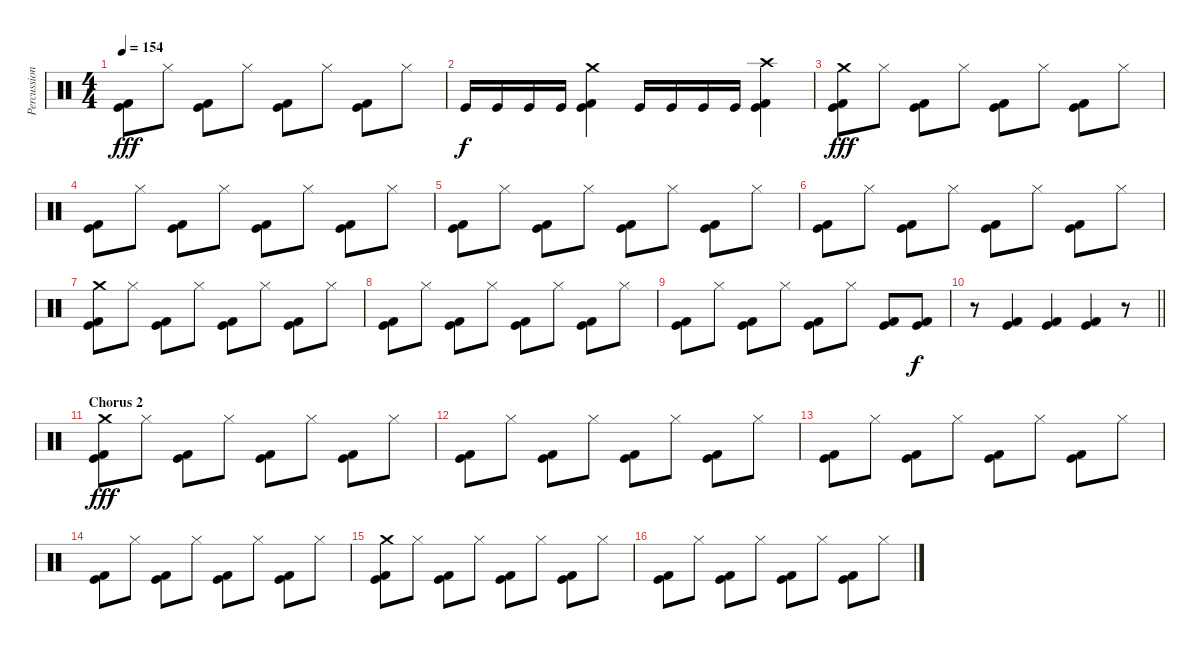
\track ("Percussion" "Percussion") {instrument percussion}
\staff {score}
\articulation defaults
\ts (4 4)
\tempo 154
\clef neutral
\ks c
("Kick (hit)" "Kick (hit) 2").8{dy fff} "Hi-Hat (closed)".8 ("Kick (hit)" "Kick (hit) 2").8 "Hi-Hat (closed)".8 ("Kick (hit)" "Kick (hit) 2").8 "Hi-Hat (closed)".8 ("Kick (hit)" "Kick (hit) 2").8 "Hi-Hat (closed)".8 |
"Kick (hit)".16{dy f} "Kick (hit)".16 "Kick (hit)".16 "Kick (hit)".16 ("Crash medium (hit)" "Kick (hit) 2" "Kick (hit)").4 "Kick (hit)".16 "Kick (hit)".16 "Kick (hit)".16 "Kick (hit)".16 ("Crash high (hit)" "Kick (hit) 2" "Kick (hit)").4 |
("Crash medium (hit)" "Kick (hit)" "Kick (hit) 2").8{dy fff} "Hi-Hat (closed)".8 ("Kick (hit)" "Kick (hit) 2").8 "Hi-Hat (closed)".8 ("Kick (hit)" "Kick (hit) 2").8 "Hi-Hat (closed)".8 ("Kick (hit)" "Kick (hit) 2").8 "Hi-Hat (closed)".8 |
("Kick (hit)" "Kick (hit) 2").8 "Hi-Hat (closed)".8 ("Kick (hit)" "Kick (hit) 2").8 "Hi-Hat (closed)".8 ("Kick (hit)" "Kick (hit) 2").8 "Hi-Hat (closed)".8 ("Kick (hit)" "Kick (hit) 2").8 "Hi-Hat (closed)".8 |
("Kick (hit)" "Kick (hit) 2").8 "Hi-Hat (closed)".8 ("Kick (hit)" "Kick (hit) 2").8 "Hi-Hat (closed)".8 ("Kick (hit)" "Kick (hit) 2").8 "Hi-Hat (closed)".8 ("Kick (hit)" "Kick (hit) 2").8 "Hi-Hat (closed)".8 |
("Kick (hit)" "Kick (hit) 2").8 "Hi-Hat (closed)".8 ("Kick (hit)" "Kick (hit) 2").8 "Hi-Hat (closed)".8 ("Kick (hit)" "Kick (hit) 2").8 "Hi-Hat (closed)".8 ("Kick (hit)" "Kick (hit) 2").8 "Hi-Hat (closed)".8 |
("Crash medium (hit)" "Kick (hit)" "Kick (hit) 2").8 "Hi-Hat (closed)".8 ("Kick (hit)" "Kick (hit) 2").8 "Hi-Hat (closed)".8 ("Kick (hit)" "Kick (hit) 2").8 "Hi-Hat (closed)".8 ("Kick (hit)" "Kick (hit) 2").8 "Hi-Hat (closed)".8 |
("Kick (hit)" "Kick (hit) 2").8 "Hi-Hat (closed)".8 ("Kick (hit)" "Kick (hit) 2").8 "Hi-Hat (closed)".8 ("Kick (hit)" "Kick (hit) 2").8 "Hi-Hat (closed)".8 ("Kick (hit)" "Kick (hit) 2").8 "Hi-Hat (closed)".8 |
("Kick (hit)" "Kick (hit) 2").8 "Hi-Hat (closed)".8 ("Kick (hit)" "Kick (hit) 2").8 "Hi-Hat (closed)".8 ("Kick (hit)" "Kick (hit) 2").8 "Hi-Hat (closed)".8 ("Kick (hit)" "Kick (hit) 2").8 ("Kick (hit)" "Kick (hit) 2").8{dy f} |
\barLineRight lightlight
r.8 ("Kick (hit)" "Kick (hit) 2").4 ("Kick (hit)" "Kick (hit) 2").4 ("Kick (hit)" "Kick (hit) 2").4 r.8 |
\section ("" "Chorus 2")
("Crash medium (hit)" "Kick (hit)" "Kick (hit) 2").8{dy fff} "Hi-Hat (closed)".8 ("Kick (hit)" "Kick (hit) 2").8 "Hi-Hat (closed)".8 ("Kick (hit)" "Kick (hit) 2").8 "Hi-Hat (closed)".8 ("Kick (hit)" "Kick (hit) 2").8 "Hi-Hat (closed)".8 |
("Kick (hit)" "Kick (hit) 2").8 "Hi-Hat (closed)".8 ("Kick (hit)" "Kick (hit) 2").8 "Hi-Hat (closed)".8 ("Kick (hit)" "Kick (hit) 2").8 "Hi-Hat (closed)".8 ("Kick (hit)" "Kick (hit) 2").8 "Hi-Hat (closed)".8 |
("Kick (hit)" "Kick (hit) 2").8 "Hi-Hat (closed)".8 ("Kick (hit)" "Kick (hit) 2").8 "Hi-Hat (closed)".8 ("Kick (hit)" "Kick (hit) 2").8 "Hi-Hat (closed)".8 ("Kick (hit)" "Kick (hit) 2").8 "Hi-Hat (closed)".8 |
("Kick (hit)" "Kick (hit) 2").8 "Hi-Hat (closed)".8 ("Kick (hit)" "Kick (hit) 2").8 "Hi-Hat (closed)".8 ("Kick (hit)" "Kick (hit) 2").8 "Hi-Hat (closed)".8 ("Kick (hit)" "Kick (hit) 2").8 "Hi-Hat (closed)".8 |
("Crash medium (hit)" "Kick (hit)" "Kick (hit) 2").8 "Hi-Hat (closed)".8 ("Kick (hit)" "Kick (hit) 2").8 "Hi-Hat (closed)".8 ("Kick (hit)" "Kick (hit) 2").8 "Hi-Hat (closed)".8 ("Kick (hit)" "Kick (hit) 2").8 "Hi-Hat (closed)".8 |
("Kick (hit)" "Kick (hit) 2").8 "Hi-Hat (closed)".8 ("Kick (hit)" "Kick (hit) 2").8 "Hi-Hat (closed)".8 ("Kick (hit)" "Kick (hit) 2").8 "Hi-Hat (closed)".8 ("Kick (hit)" "Kick (hit) 2").8 "Hi-Hat (closed)".8
